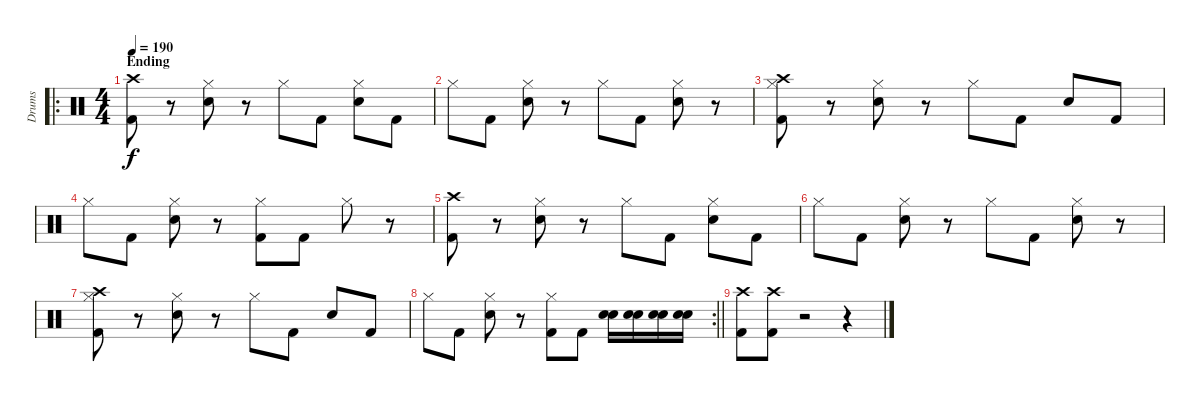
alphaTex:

\track ("Drums" "Drums") {instrument percussion}
\staff {score}
\articulation defaults
\ro
\ts (4 4)
\section ("" "Ending")
\tempo 190
\clef neutral
\ks c
("Crash high (hit)" "Kick (hit) 2").8{dy f} r.8 ("Hi-Hat (closed)" "Snare (hit) 2").8 r.8 "Hi-Hat (closed)".8 "Kick (hit) 2".8 ("Hi-Hat (closed)" "Snare (hit) 2").8 "Kick (hit) 2".8 |
"Hi-Hat (closed)".8 "Kick (hit) 2".8 ("Hi-Hat (closed)" "Snare (hit) 2").8 r.8 "Hi-Hat (closed)".8 "Kick (hit) 2".8 ("Hi-Hat (closed)" "Snare (hit) 2").8 r.8 |
("Hi-Hat (closed)" "Kick (hit) 2" "Crash high (hit)").8 r.8 ("Hi-Hat (closed)" "Snare (hit) 2").8 r.8 "Hi-Hat (closed)".8 "Kick (hit) 2".8 "Snare (hit) 2".8 "Kick (hit) 2".8 |
"Hi-Hat (closed)".8 "Kick (hit) 2".8 ("Hi-Hat (closed)" "Snare (hit) 2").8 r.8 ("Hi-Hat (closed)" "Kick (hit) 2").8 "Kick (hit) 2".8 "Hi-Hat (closed)".8 r.8 |
("Crash high (hit)" "Kick (hit) 2").8 r.8 ("Hi-Hat (closed)" "Snare (hit) 2").8 r.8 "Hi-Hat (closed)".8 "Kick (hit) 2".8 ("Hi-Hat (closed)" "Snare (hit) 2").8 "Kick (hit) 2".8 |
"Hi-Hat (closed)".8 "Kick (hit) 2".8 ("Hi-Hat (closed)" "Snare (hit) 2").8 r.8 "Hi-Hat (closed)".8 "Kick (hit) 2".8 ("Hi-Hat (closed)" "Snare (hit) 2").8 r.8 |
("Hi-Hat (closed)" "Kick (hit) 2" "Crash high (hit)").8 r.8 ("Hi-Hat (closed)" "Snare (hit) 2").8 r.8 "Hi-Hat (closed)".8 "Kick (hit) 2".8 "Snare (hit) 2".8 "Kick (hit) 2".8 |
\rc 2
\barLineRight lightlight "Hi-Hat (closed)".8 "Kick (hit) 2".8
("Hi-Hat (closed)" "Snare (hit) 2").8 r.8 ("Hi-Hat (closed)" "Kick (hit) 2").8 "Kick (hit) 2".8 ("Electric Snare (hit)" "Electric Snare (hit)").16 ("Electric Snare (hit)" "Electric Snare (hit)").16 ("Electric Snare (hit)" "Electric Snare (hit)").16 ("Electric Snare (hit)" "Electric Snare (hit)").16 |
("Crash high (hit)" "Kick (hit) 2").8 ("Crash high (hit)" "Kick (hit) 2").8 r.2 r.4
